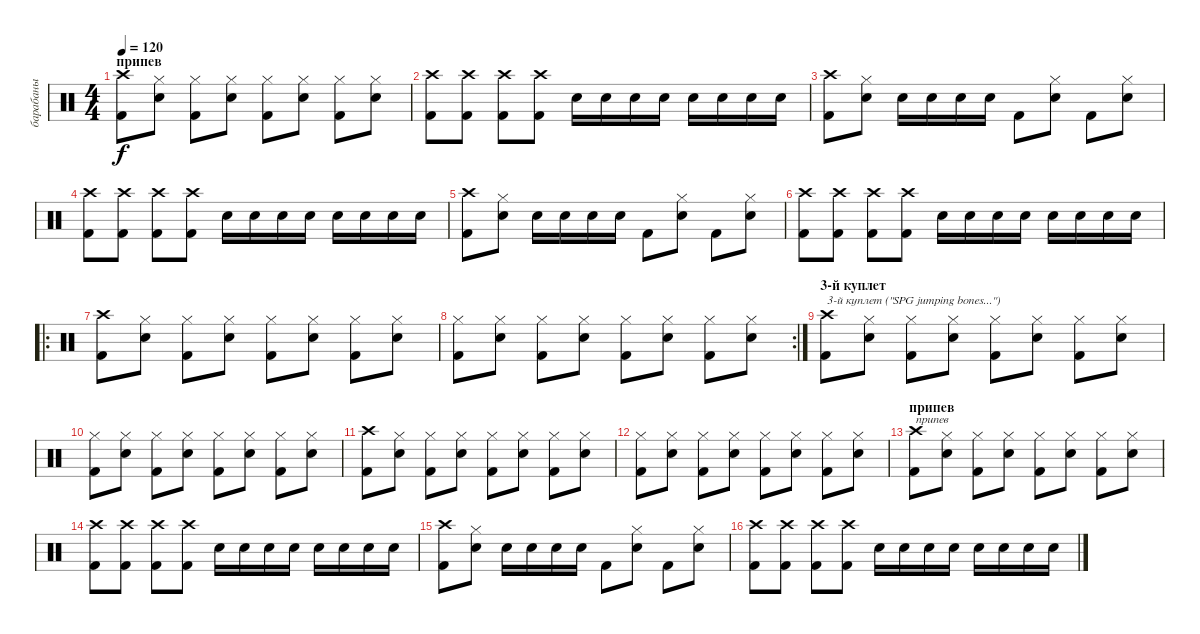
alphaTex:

\track ("барабаны" "барабаны") {instrument percussion}
\staff {score}
\articulation defaults
\ts (4 4)
\section ("" "припев")
\tempo 120
\clef neutral
\ks c
("Crash high (hit)" "Kick (hit) 2").8{dy f} ("Hi-Hat (closed)" "Snare (hit) 2").8 ("Hi-Hat (closed)" "Kick (hit) 2").8 ("Hi-Hat (closed)" "Snare (hit) 2").8 ("Hi-Hat (closed)" "Kick (hit) 2").8 ("Hi-Hat (closed)" "Snare (hit) 2").8 ("Hi-Hat (closed)" "Kick (hit) 2").8 ("Hi-Hat (closed)" "Snare (hit) 2").8 |
("Crash high (hit)" "Kick (hit) 2").8 ("Crash high (hit)" "Kick (hit) 2").8 ("Crash high (hit)" "Kick (hit) 2").8 ("Crash high (hit)" "Kick (hit) 2").8 "Snare (hit) 2".16 "Snare (hit) 2".16 "Snare (hit) 2".16 "Snare (hit) 2".16 "Snare (hit) 2".16 "Snare (hit) 2".16 "Snare (hit) 2".16 "Snare (hit) 2".16 |
("Crash high (hit)" "Kick (hit) 2").8 ("Hi-Hat (closed)" "Snare (hit) 2").8 "Snare (hit) 2".16 "Snare (hit) 2".16 "Snare (hit) 2".16 "Snare (hit) 2".16 "Kick (hit) 2".8 ("Hi-Hat (closed)" "Snare (hit) 2").8 "Kick (hit) 2".8 ("Hi-Hat (closed)" "Snare (hit) 2").8 |
("Crash high (hit)" "Kick (hit) 2").8 ("Crash high (hit)" "Kick (hit) 2").8 ("Crash high (hit)" "Kick (hit) 2").8 ("Crash high (hit)" "Kick (hit) 2").8 "Snare (hit) 2".16 "Snare (hit) 2".16 "Snare (hit) 2".16 "Snare (hit) 2".16 "Snare (hit) 2".16 "Snare (hit) 2".16 "Snare (hit) 2".16 "Snare (hit) 2".16 |
("Crash high (hit)" "Kick (hit) 2").8 ("Hi-Hat (closed)" "Snare (hit) 2").8 "Snare (hit) 2".16 "Snare (hit) 2".16 "Snare (hit) 2".16 "Snare (hit) 2".16 "Kick (hit) 2".8 ("Hi-Hat (closed)" "Snare (hit) 2").8 "Kick (hit) 2".8 ("Hi-Hat (closed)" "Snare (hit) 2").8 |
("Crash high (hit)" "Kick (hit) 2").8 ("Crash high (hit)" "Kick (hit) 2").8 ("Crash high (hit)" "Kick (hit) 2").8 ("Crash high (hit)" "Kick (hit) 2").8 "Snare (hit) 2".16 "Snare (hit) 2".16 "Snare (hit) 2".16 "Snare (hit) 2".16 "Snare (hit) 2".16 "Snare (hit) 2".16 "Snare (hit) 2".16 "Snare (hit) 2".16 |
\ro
("Crash high (hit)" "Kick (hit) 2").8 ("Hi-Hat (closed)" "Snare (hit) 2").8 ("Hi-Hat (closed)" "Kick (hit) 2").8 ("Hi-Hat (closed)" "Snare (hit) 2").8 ("Hi-Hat (closed)" "Kick (hit) 2").8 ("Hi-Hat (closed)" "Snare (hit) 2").8 ("Hi-Hat (closed)" "Kick (hit) 2").8 ("Hi-Hat (closed)" "Snare (hit) 2").8 |
\rc 2
("Hi-Hat (closed)" "Kick (hit) 2").8 ("Hi-Hat (closed)" "Snare (hit) 2").8 ("Hi-Hat (closed)" "Kick (hit) 2").8 ("Hi-Hat (closed)" "Snare (hit) 2").8 ("Hi-Hat (closed)" "Kick (hit) 2").8 ("Hi-Hat (closed)" "Snare (hit) 2").8 ("Hi-Hat (closed)" "Kick (hit) 2").8 ("Hi-Hat (closed)" "Snare (hit) 2").8 |
\section ("" "3-й куплет")
("Crash high (hit)" "Kick (hit) 2").8{txt "3-й куплет (\"SPG jumping bones...\")"} ("Hi-Hat (closed)" "Snare (hit) 2").8 ("Hi-Hat (closed)" "Kick (hit) 2").8 ("Hi-Hat (closed)" "Snare (hit) 2").8 ("Hi-Hat (closed)" "Kick (hit) 2").8 ("Hi-Hat (closed)" "Snare (hit) 2").8 ("Hi-Hat (closed)" "Kick (hit) 2").8 ("Hi-Hat (closed)" "Snare (hit) 2").8 |
("Hi-Hat (closed)" "Kick (hit) 2").8 ("Hi-Hat (closed)" "Snare (hit) 2").8 ("Hi-Hat (closed)" "Kick (hit) 2").8 ("Hi-Hat (closed)" "Snare (hit) 2").8 ("Hi-Hat (closed)" "Kick (hit) 2").8 ("Hi-Hat (closed)" "Snare (hit) 2").8 ("Hi-Hat (closed)" "Kick (hit) 2").8 ("Hi-Hat (closed)" "Snare (hit) 2").8 |
("Crash high (hit)" "Kick (hit) 2").8 ("Hi-Hat (closed)" "Snare (hit) 2").8 ("Hi-Hat (closed)" "Kick (hit) 2").8 ("Hi-Hat (closed)" "Snare (hit) 2").8 ("Hi-Hat (closed)" "Kick (hit) 2").8 ("Hi-Hat (closed)" "Snare (hit) 2").8 ("Hi-Hat (closed)" "Kick (hit) 2").8 ("Hi-Hat (closed)" "Snare (hit) 2").8 |
("Hi-Hat (closed)" "Kick (hit) 2").8 ("Hi-Hat (closed)" "Snare (hit) 2").8 ("Hi-Hat (closed)" "Kick (hit) 2").8 ("Hi-Hat (closed)" "Snare (hit) 2").8 ("Hi-Hat (closed)" "Kick (hit) 2").8 ("Hi-Hat (closed)" "Snare (hit) 2").8 ("Hi-Hat (closed)" "Kick (hit) 2").8 ("Hi-Hat (closed)" "Snare (hit) 2").8 |
\section ("" "припев")
("Crash high (hit)" "Kick (hit) 2").8{txt "припев"} ("Hi-Hat (closed)" "Snare (hit) 2").8 ("Hi-Hat (closed)" "Kick (hit) 2").8 ("Hi-Hat (closed)" "Snare (hit) 2").8 ("Hi-Hat (closed)" "Kick (hit) 2").8 ("Hi-Hat (closed)" "Snare (hit) 2").8 ("Hi-Hat (closed)" "Kick (hit) 2").8 ("Hi-Hat (closed)" "Snare (hit) 2").8 |
("Crash high (hit)" "Kick (hit) 2").8 ("Crash high (hit)" "Kick (hit) 2").8 ("Crash high (hit)" "Kick (hit) 2").8 ("Crash high (hit)" "Kick (hit) 2").8 "Snare (hit) 2".16 "Snare (hit) 2".16 "Snare (hit) 2".16 "Snare (hit) 2".16 "Snare (hit) 2".16 "Snare (hit) 2".16 "Snare (hit) 2".16 "Snare (hit) 2".16 |
("Crash high (hit)" "Kick (hit) 2").8 ("Hi-Hat (closed)" "Snare (hit) 2").8 "Snare (hit) 2".16 "Snare (hit) 2".16 "Snare (hit) 2".16 "Snare (hit) 2".16 "Kick (hit) 2".8 ("Hi-Hat (closed)" "Snare (hit) 2").8 "Kick (hit) 2".8 ("Hi-Hat (closed)" "Snare (hit) 2").8 |
("Crash high (hit)" "Kick (hit) 2").8 ("Crash high (hit)" "Kick (hit) 2").8 ("Crash high (hit)" "Kick (hit) 2").8 ("Crash high (hit)" "Kick (hit) 2").8 "Snare (hit) 2".16 "Snare (hit) 2".16 "Snare (hit) 2".16 "Snare (hit) 2".16 "Snare (hit) 2".16 "Snare (hit) 2".16 "Snare (hit) 2".16 "Snare (hit) 2".16
